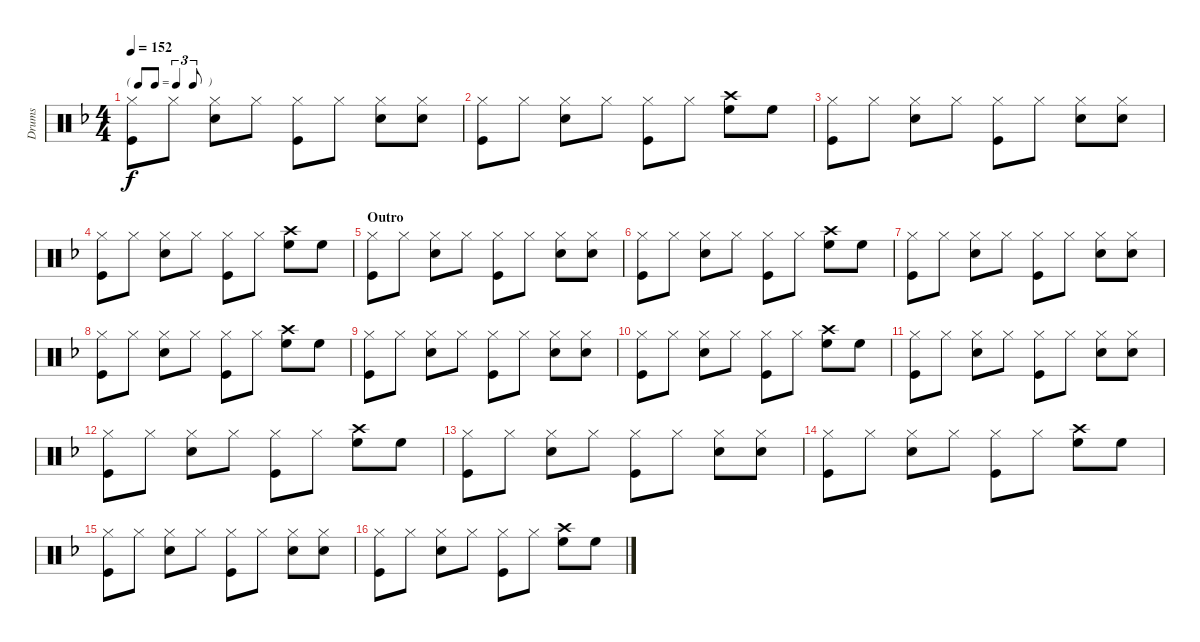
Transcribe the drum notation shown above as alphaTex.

\track ("Drums" "Drums") {instrument percussion}
\staff {score}
\articulation defaults
\ts (4 4)
\tf triplet8th
\tempo 152
\clef neutral
\ks f
("Hi-Hat (closed)" "Kick (hit)").8{dy f} "Hi-Hat (closed)".8 ("Hi-Hat (closed)" "Snare (hit) 2").8 "Hi-Hat (closed)".8 ("Hi-Hat (closed)" "Kick (hit)").8 "Hi-Hat (closed)".8 ("Hi-Hat (closed)" "Snare (hit) 2").8 ("Hi-Hat (closed)" "Snare (hit) 2").8 |
("Hi-Hat (closed)" "Kick (hit)").8 "Hi-Hat (closed)".8 ("Hi-Hat (closed)" "Snare (hit) 2").8 "Hi-Hat (closed)".8 ("Hi-Hat (closed)" "Kick (hit)").8 "Hi-Hat (closed)".8 ("Crash high (hit)" "High Floor Tom (hit)").8 "High Floor Tom (hit)".8 |
("Hi-Hat (closed)" "Kick (hit)").8 "Hi-Hat (closed)".8 ("Hi-Hat (closed)" "Snare (hit) 2").8 "Hi-Hat (closed)".8 ("Hi-Hat (closed)" "Kick (hit)").8 "Hi-Hat (closed)".8 ("Hi-Hat (closed)" "Snare (hit) 2").8 ("Hi-Hat (closed)" "Snare (hit) 2").8 |
("Hi-Hat (closed)" "Kick (hit)").8 "Hi-Hat (closed)".8 ("Hi-Hat (closed)" "Snare (hit) 2").8 "Hi-Hat (closed)".8 ("Hi-Hat (closed)" "Kick (hit)").8 "Hi-Hat (closed)".8 ("Crash high (hit)" "High Floor Tom (hit)").8 "High Floor Tom (hit)".8 |
\section ("" "Outro")
("Hi-Hat (closed)" "Kick (hit)").8 "Hi-Hat (closed)".8 ("Hi-Hat (closed)" "Snare (hit) 2").8 "Hi-Hat (closed)".8 ("Hi-Hat (closed)" "Kick (hit)").8 "Hi-Hat (closed)".8 ("Hi-Hat (closed)" "Snare (hit) 2").8 ("Hi-Hat (closed)" "Snare (hit) 2").8 |
("Hi-Hat (closed)" "Kick (hit)").8 "Hi-Hat (closed)".8 ("Hi-Hat (closed)" "Snare (hit) 2").8 "Hi-Hat (closed)".8 ("Hi-Hat (closed)" "Kick (hit)").8 "Hi-Hat (closed)".8 ("Crash high (hit)" "High Floor Tom (hit)").8 "High Floor Tom (hit)".8 |
("Hi-Hat (closed)" "Kick (hit)").8 "Hi-Hat (closed)".8 ("Hi-Hat (closed)" "Snare (hit) 2").8 "Hi-Hat (closed)".8 ("Hi-Hat (closed)" "Kick (hit)").8 "Hi-Hat (closed)".8 ("Hi-Hat (closed)" "Snare (hit) 2").8 ("Hi-Hat (closed)" "Snare (hit) 2").8 |
("Hi-Hat (closed)" "Kick (hit)").8 "Hi-Hat (closed)".8 ("Hi-Hat (closed)" "Snare (hit) 2").8 "Hi-Hat (closed)".8 ("Hi-Hat (closed)" "Kick (hit)").8 "Hi-Hat (closed)".8 ("Crash high (hit)" "High Floor Tom (hit)").8 "High Floor Tom (hit)".8 |
("Hi-Hat (closed)" "Kick (hit)").8 "Hi-Hat (closed)".8 ("Hi-Hat (closed)" "Snare (hit) 2").8 "Hi-Hat (closed)".8 ("Hi-Hat (closed)" "Kick (hit)").8 "Hi-Hat (closed)".8 ("Hi-Hat (closed)" "Snare (hit) 2").8 ("Hi-Hat (closed)" "Snare (hit) 2").8 |
("Hi-Hat (closed)" "Kick (hit)").8 "Hi-Hat (closed)".8 ("Hi-Hat (closed)" "Snare (hit) 2").8 "Hi-Hat (closed)".8 ("Hi-Hat (closed)" "Kick (hit)").8 "Hi-Hat (closed)".8 ("Crash high (hit)" "High Floor Tom (hit)").8 "High Floor Tom (hit)".8 |
("Hi-Hat (closed)" "Kick (hit)").8 "Hi-Hat (closed)".8 ("Hi-Hat (closed)" "Snare (hit) 2").8 "Hi-Hat (closed)".8 ("Hi-Hat (closed)" "Kick (hit)").8 "Hi-Hat (closed)".8 ("Hi-Hat (closed)" "Snare (hit) 2").8 ("Hi-Hat (closed)" "Snare (hit) 2").8 |
("Hi-Hat (closed)" "Kick (hit)").8 "Hi-Hat (closed)".8 ("Hi-Hat (closed)" "Snare (hit) 2").8 "Hi-Hat (closed)".8 ("Hi-Hat (closed)" "Kick (hit)").8 "Hi-Hat (closed)".8 ("Crash high (hit)" "High Floor Tom (hit)").8 "High Floor Tom (hit)".8 |
("Hi-Hat (closed)" "Kick (hit)").8 "Hi-Hat (closed)".8 ("Hi-Hat (closed)" "Snare (hit) 2").8 "Hi-Hat (closed)".8 ("Hi-Hat (closed)" "Kick (hit)").8 "Hi-Hat (closed)".8 ("Hi-Hat (closed)" "Snare (hit) 2").8 ("Hi-Hat (closed)" "Snare (hit) 2").8 |
("Hi-Hat (closed)" "Kick (hit)").8 "Hi-Hat (closed)".8 ("Hi-Hat (closed)" "Snare (hit) 2").8 "Hi-Hat (closed)".8 ("Hi-Hat (closed)" "Kick (hit)").8 "Hi-Hat (closed)".8 ("Crash high (hit)" "High Floor Tom (hit)").8 "High Floor Tom (hit)".8 |
("Hi-Hat (closed)" "Kick (hit)").8 "Hi-Hat (closed)".8 ("Hi-Hat (closed)" "Snare (hit) 2").8 "Hi-Hat (closed)".8 ("Hi-Hat (closed)" "Kick (hit)").8 "Hi-Hat (closed)".8 ("Hi-Hat (closed)" "Snare (hit) 2").8 ("Hi-Hat (closed)" "Snare (hit) 2").8 |
("Hi-Hat (closed)" "Kick (hit)").8 "Hi-Hat (closed)".8 ("Hi-Hat (closed)" "Snare (hit) 2").8 "Hi-Hat (closed)".8 ("Hi-Hat (closed)" "Kick (hit)").8 "Hi-Hat (closed)".8 ("Crash high (hit)" "High Floor Tom (hit)").8 "High Floor Tom (hit)".8
